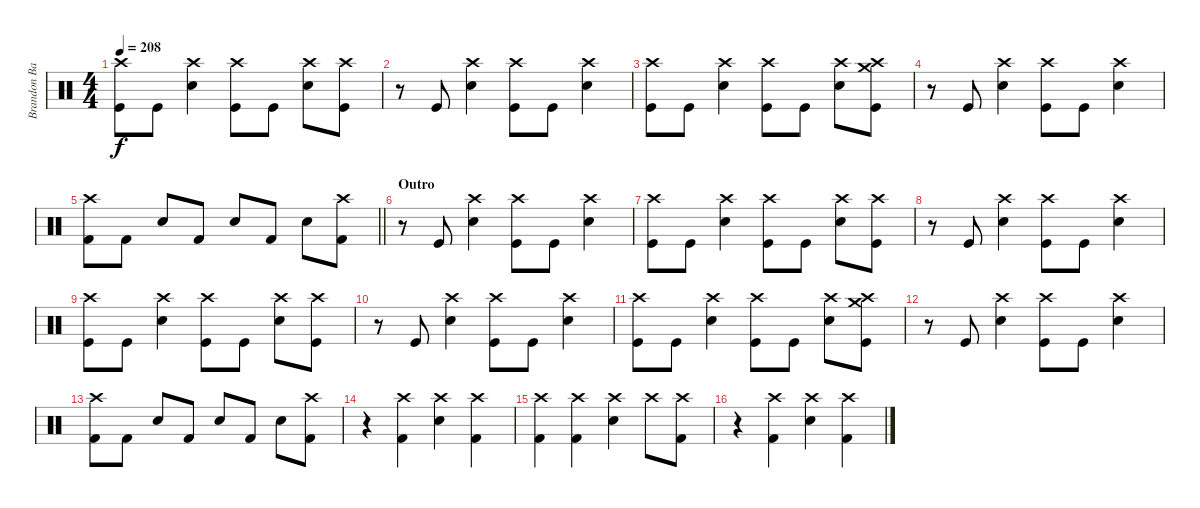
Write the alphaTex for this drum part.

\track ("Brandon Barnes - Drums" "Brandon Ba") {instrument percussion}
\staff {score}
\articulation defaults
\ts (4 4)
\tempo 208
\clef neutral
\ks c
("Kick (hit)" "Crash high (hit)").8{dy f} "Kick (hit)".8 ("Snare (hit) 2" "Crash high (hit)").4 ("Kick (hit)" "Crash high (hit)").8 "Kick (hit)".8 ("Snare (hit) 2" "Crash high (hit)").8 ("Kick (hit)" "Crash high (hit)").8 |
r.8 "Kick (hit)".8 ("Snare (hit) 2" "Crash high (hit)").4 ("Kick (hit)" "Crash high (hit)").8 "Kick (hit)".8 ("Snare (hit) 2" "Crash high (hit)").4 |
("Kick (hit)" "Crash high (hit)").8 "Kick (hit)".8 ("Snare (hit) 2" "Crash high (hit)").4 ("Kick (hit)" "Crash high (hit)").8 "Kick (hit)".8 ("Snare (hit) 2" "Crash high (hit)").8 ("Kick (hit)" "Crash high (hit)" "Crash medium (hit)").8 |
r.8 "Kick (hit)".8 ("Snare (hit) 2" "Crash high (hit)").4 ("Kick (hit)" "Crash high (hit)").8 "Kick (hit)".8 ("Snare (hit) 2" "Crash high (hit)").4 |
\barLineRight lightlight
("Kick (hit) 2" "Crash high (hit)").8 "Kick (hit) 2".8 "Snare (hit) 2".8 "Kick (hit) 2".8 "Snare (hit) 2".8 "Kick (hit) 2".8 "Snare (hit) 2".8 ("Kick (hit) 2" "Crash high (hit)").8 |
\section ("" "Outro")
r.8 "Kick (hit)".8 ("Snare (hit) 2" "Crash high (hit)").4 ("Kick (hit)" "Crash high (hit)").8 "Kick (hit)".8 ("Snare (hit) 2" "Crash high (hit)").4 |
("Kick (hit)" "Crash high (hit)").8 "Kick (hit)".8 ("Snare (hit) 2" "Crash high (hit)").4 ("Kick (hit)" "Crash high (hit)").8 "Kick (hit)".8 ("Snare (hit) 2" "Crash high (hit)").8 ("Kick (hit)" "Crash high (hit)").8 |
r.8 "Kick (hit)".8 ("Snare (hit) 2" "Crash high (hit)").4 ("Kick (hit)" "Crash high (hit)").8 "Kick (hit)".8 ("Snare (hit) 2" "Crash high (hit)").4 |
("Kick (hit)" "Crash high (hit)").8 "Kick (hit)".8 ("Snare (hit) 2" "Crash high (hit)").4 ("Kick (hit)" "Crash high (hit)").8 "Kick (hit)".8 ("Snare (hit) 2" "Crash high (hit)").8 ("Kick (hit)" "Crash high (hit)").8 |
r.8 "Kick (hit)".8 ("Snare (hit) 2" "Crash high (hit)").4 ("Kick (hit)" "Crash high (hit)").8 "Kick (hit)".8 ("Snare (hit) 2" "Crash high (hit)").4 |
("Kick (hit)" "Crash high (hit)").8 "Kick (hit)".8 ("Snare (hit) 2" "Crash high (hit)").4 ("Kick (hit)" "Crash high (hit)").8 "Kick (hit)".8 ("Snare (hit) 2" "Crash high (hit)").8 ("Kick (hit)" "Crash high (hit)" "Crash medium (hit)").8 |
r.8 "Kick (hit)".8 ("Snare (hit) 2" "Crash high (hit)").4 ("Kick (hit)" "Crash high (hit)").8 "Kick (hit)".8 ("Snare (hit) 2" "Crash high (hit)").4 |
("Kick (hit) 2" "Crash high (hit)").8 "Kick (hit) 2".8 "Snare (hit) 2".8 "Kick (hit) 2".8 "Snare (hit) 2".8 "Kick (hit) 2".8 "Snare (hit) 2".8 ("Kick (hit) 2" "Crash high (hit)").8 |
r.4 ("Kick (hit) 2" "Crash high (hit)").4 ("Snare (hit) 2" "Crash high (hit)").4 ("Kick (hit) 2" "Crash high (hit)").4 |
("Kick (hit) 2" "Crash high (hit)").4 ("Kick (hit) 2" "Crash high (hit)").4 ("Snare (hit) 2" "Crash high (hit)").4 "Crash high (hit)".8 ("Kick (hit) 2" "Crash high (hit)").8 |
r.4 ("Kick (hit) 2" "Crash high (hit)").4 ("Snare (hit) 2" "Crash high (hit)").4 ("Kick (hit) 2" "Crash high (hit)").4
